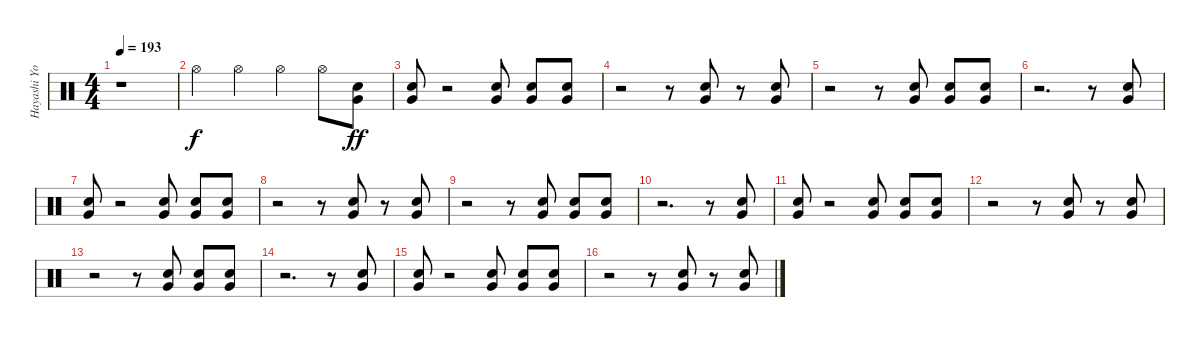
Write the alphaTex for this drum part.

\track ("Hayashi Yoshiki(Yoshiki)" "Hayashi Yo") {instrument percussion}
\staff {score}
\articulation defaults
\ts (4 4)
\tempo 193
\clef neutral
\ks c
r.1{dy f} |
"Hi-Hat (open)".4 "Hi-Hat (open)".4 "Hi-Hat (open)".4 "Hi-Hat (open)".8 ("Very Low Tom (hit)" "Electric Snare (hit)").8{dy ff} |
("Very Low Tom (hit)" "Electric Snare (hit)").8 r.2 ("Very Low Tom (hit)" "Electric Snare (hit)").8 ("Very Low Tom (hit)" "Electric Snare (hit)").8 ("Very Low Tom (hit)" "Electric Snare (hit)").8 |
r.2 r.8 ("Very Low Tom (hit)" "Electric Snare (hit)").8 r.8 ("Very Low Tom (hit)" "Electric Snare (hit)").8 |
r.2 r.8 ("Very Low Tom (hit)" "Electric Snare (hit)").8 ("Very Low Tom (hit)" "Electric Snare (hit)").8 ("Very Low Tom (hit)" "Electric Snare (hit)").8 |
r.2{d} r.8 ("Very Low Tom (hit)" "Electric Snare (hit)").8 |
("Very Low Tom (hit)" "Electric Snare (hit)").8 r.2 ("Very Low Tom (hit)" "Electric Snare (hit)").8 ("Very Low Tom (hit)" "Electric Snare (hit)").8 ("Very Low Tom (hit)" "Electric Snare (hit)").8 |
r.2 r.8 ("Very Low Tom (hit)" "Electric Snare (hit)").8 r.8 ("Very Low Tom (hit)" "Electric Snare (hit)").8 |
r.2 r.8 ("Very Low Tom (hit)" "Electric Snare (hit)").8 ("Very Low Tom (hit)" "Electric Snare (hit)").8 ("Very Low Tom (hit)" "Electric Snare (hit)").8 |
r.2{d} r.8 ("Very Low Tom (hit)" "Electric Snare (hit)").8 |
("Very Low Tom (hit)" "Electric Snare (hit)").8 r.2 ("Very Low Tom (hit)" "Electric Snare (hit)").8 ("Very Low Tom (hit)" "Electric Snare (hit)").8 ("Very Low Tom (hit)" "Electric Snare (hit)").8 |
r.2 r.8 ("Very Low Tom (hit)" "Electric Snare (hit)").8 r.8 ("Very Low Tom (hit)" "Electric Snare (hit)").8 |
r.2 r.8 ("Very Low Tom (hit)" "Electric Snare (hit)").8 ("Very Low Tom (hit)" "Electric Snare (hit)").8 ("Very Low Tom (hit)" "Electric Snare (hit)").8 |
r.2{d} r.8 ("Very Low Tom (hit)" "Electric Snare (hit)").8 |
("Very Low Tom (hit)" "Electric Snare (hit)").8 r.2 ("Very Low Tom (hit)" "Electric Snare (hit)").8 ("Very Low Tom (hit)" "Electric Snare (hit)").8 ("Very Low Tom (hit)" "Electric Snare (hit)").8 |
r.2 r.8 ("Very Low Tom (hit)" "Electric Snare (hit)").8 r.8 ("Very Low Tom (hit)" "Electric Snare (hit)").8
